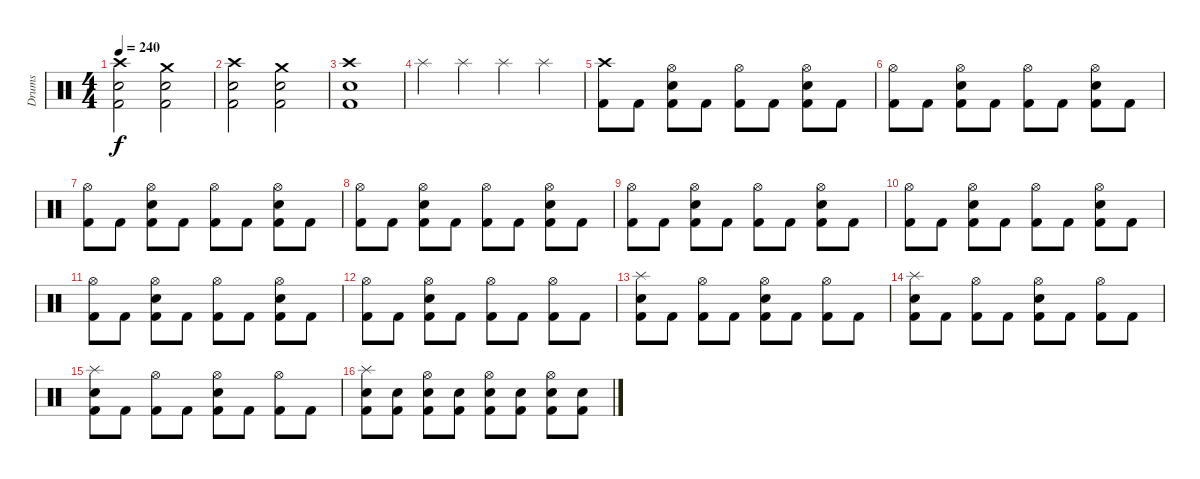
\track ("Drums" "Drums") {instrument percussion}
\staff {score}
\articulation defaults
\ts (4 4)
\tempo 240
\clef neutral
\ks c
("Kick (hit) 2" "Electric Snare (hit)" "Crash high (hit)").2{dy f} ("Kick (hit) 2" "Electric Snare (hit)" "Crash medium (hit)").2 |
("Kick (hit) 2" "Electric Snare (hit)" "Crash high (hit)").2 ("Kick (hit) 2" "Electric Snare (hit)" "Crash medium (hit)").2 |
("Kick (hit) 2" "Electric Snare (hit)" "Crash high (hit)").1 |
"Splash (hit)".4 "Splash (hit)".4 "Splash (hit)".4 "Splash (hit)".4 |
("Kick (hit) 2" "Crash high (hit)").8 "Kick (hit) 2".8 ("Kick (hit) 2" "Electric Snare (hit)" "Hi-Hat (open)").8 "Kick (hit) 2".8 ("Kick (hit) 2" "Hi-Hat (open)").8 "Kick (hit) 2".8 ("Kick (hit) 2" "Electric Snare (hit)" "Hi-Hat (open)").8 "Kick (hit) 2".8 |
("Kick (hit) 2" "Hi-Hat (open)").8 "Kick (hit) 2".8 ("Kick (hit) 2" "Electric Snare (hit)" "Hi-Hat (open)").8 "Kick (hit) 2".8 ("Kick (hit) 2" "Hi-Hat (open)").8 "Kick (hit) 2".8 ("Kick (hit) 2" "Electric Snare (hit)" "Hi-Hat (open)").8 "Kick (hit) 2".8 |
("Kick (hit) 2" "Hi-Hat (open)").8 "Kick (hit) 2".8 ("Kick (hit) 2" "Electric Snare (hit)" "Hi-Hat (open)").8 "Kick (hit) 2".8 ("Kick (hit) 2" "Hi-Hat (open)").8 "Kick (hit) 2".8 ("Kick (hit) 2" "Electric Snare (hit)" "Hi-Hat (open)").8 "Kick (hit) 2".8 |
("Kick (hit) 2" "Hi-Hat (open)").8 "Kick (hit) 2".8 ("Kick (hit) 2" "Electric Snare (hit)" "Hi-Hat (open)").8 "Kick (hit) 2".8 ("Kick (hit) 2" "Hi-Hat (open)").8 "Kick (hit) 2".8 ("Kick (hit) 2" "Electric Snare (hit)" "Hi-Hat (open)").8 "Kick (hit) 2".8 |
("Kick (hit) 2" "Hi-Hat (open)").8 "Kick (hit) 2".8 ("Kick (hit) 2" "Electric Snare (hit)" "Hi-Hat (open)").8 "Kick (hit) 2".8 ("Kick (hit) 2" "Hi-Hat (open)").8 "Kick (hit) 2".8 ("Kick (hit) 2" "Electric Snare (hit)" "Hi-Hat (open)").8 "Kick (hit) 2".8 |
("Kick (hit) 2" "Hi-Hat (open)").8 "Kick (hit) 2".8 ("Kick (hit) 2" "Electric Snare (hit)" "Hi-Hat (open)").8 "Kick (hit) 2".8 ("Kick (hit) 2" "Hi-Hat (open)").8 "Kick (hit) 2".8 ("Kick (hit) 2" "Electric Snare (hit)" "Hi-Hat (open)").8 "Kick (hit) 2".8 |
("Kick (hit) 2" "Hi-Hat (open)").8 "Kick (hit) 2".8 ("Kick (hit) 2" "Electric Snare (hit)" "Hi-Hat (open)").8 "Kick (hit) 2".8 ("Kick (hit) 2" "Hi-Hat (open)").8 "Kick (hit) 2".8 ("Kick (hit) 2" "Electric Snare (hit)" "Hi-Hat (open)").8 "Kick (hit) 2".8 |
("Kick (hit) 2" "Hi-Hat (open)").8 "Kick (hit) 2".8 ("Kick (hit) 2" "Electric Snare (hit)" "Hi-Hat (open)").8 "Kick (hit) 2".8 ("Kick (hit) 2" "Hi-Hat (open)").8 "Kick (hit) 2".8 ("Kick (hit) 2" "Hi-Hat (open)").8 "Kick (hit) 2".8 |
("Kick (hit) 2" "Electric Snare (hit)" "Splash (hit)").8 "Kick (hit) 2".8 ("Kick (hit) 2" "Hi-Hat (open)").8 "Kick (hit) 2".8 ("Kick (hit) 2" "Electric Snare (hit)" "Hi-Hat (open)").8 "Kick (hit) 2".8 ("Kick (hit) 2" "Hi-Hat (open)").8 "Kick (hit) 2".8 |
("Kick (hit) 2" "Electric Snare (hit)" "Splash (hit)").8 "Kick (hit) 2".8 ("Kick (hit) 2" "Hi-Hat (open)").8 "Kick (hit) 2".8 ("Kick (hit) 2" "Electric Snare (hit)" "Hi-Hat (open)").8 "Kick (hit) 2".8 ("Kick (hit) 2" "Hi-Hat (open)").8 "Kick (hit) 2".8 |
("Kick (hit) 2" "Electric Snare (hit)" "Splash (hit)").8 "Kick (hit) 2".8 ("Kick (hit) 2" "Hi-Hat (open)").8 "Kick (hit) 2".8 ("Kick (hit) 2" "Electric Snare (hit)" "Hi-Hat (open)").8 "Kick (hit) 2".8 ("Kick (hit) 2" "Hi-Hat (open)").8 "Kick (hit) 2".8 |
("Kick (hit) 2" "Electric Snare (hit)" "Splash (hit)").8 ("Kick (hit) 2" "Electric Snare (hit)").8 ("Kick (hit) 2" "Electric Snare (hit)" "Hi-Hat (open)").8 ("Kick (hit) 2" "Electric Snare (hit)").8 ("Kick (hit) 2" "Electric Snare (hit)" "Hi-Hat (open)").8 ("Kick (hit) 2" "Electric Snare (hit)").8 ("Kick (hit) 2" "Electric Snare (hit)" "Hi-Hat (open)").8 ("Kick (hit) 2" "Electric Snare (hit)").8
